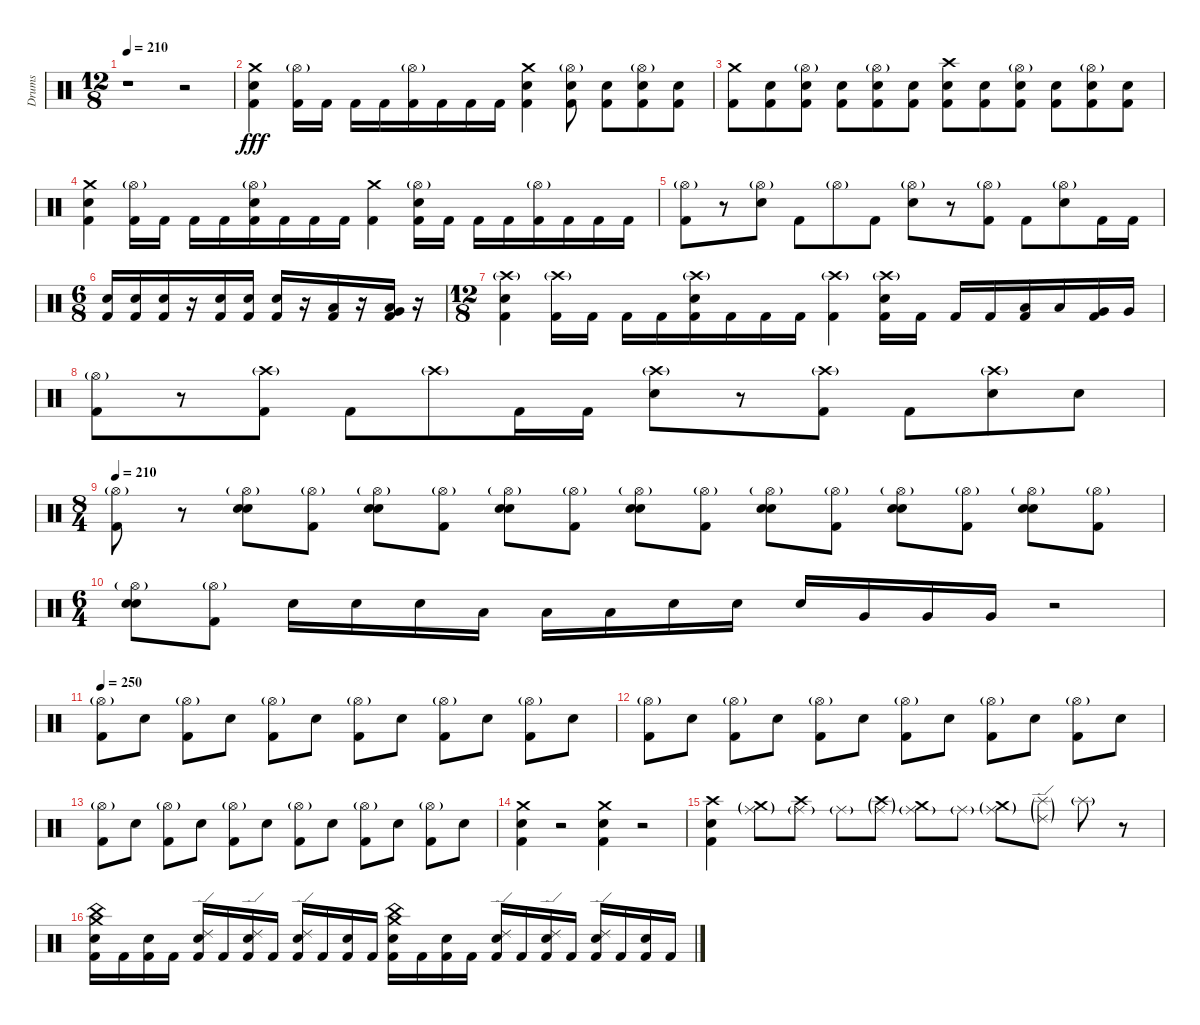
\track ("Drums" "Drums") {instrument percussion}
\staff {score}
\articulation defaults
\ts (12 8)
\tempo 210
\clef neutral
\ks c
r.1{dy fff} r.2 |
("Crash medium (hit)" "Electric Snare (hit)" "Kick (hit) 2").4 ("Hi-Hat (open)"{g} "Kick (hit) 2").16 "Kick (hit) 2".16 "Kick (hit) 2".16 "Kick (hit) 2".16 ("Hi-Hat (open)"{g} "Kick (hit) 2").16 "Kick (hit) 2".16 "Kick (hit) 2".16 "Kick (hit) 2".16 ("Crash medium (hit)" "Electric Snare (hit)" "Kick (hit) 2").4 ("Hi-Hat (open)"{g} "Electric Snare (hit)" "Kick (hit) 2").8 ("Electric Snare (hit)" "Kick (hit) 2").8 ("Hi-Hat (open)"{g} "Electric Snare (hit)" "Kick (hit) 2").8 ("Electric Snare (hit)" "Kick (hit) 2").8 |
("Crash medium (hit)" "Kick (hit) 2").8{beam Down} ("Electric Snare (hit)" "Kick (hit) 2").8{beam Down} ("Hi-Hat (open)"{g} "Electric Snare (hit)" "Kick (hit) 2").8{beam Down} ("Electric Snare (hit)" "Kick (hit) 2").8 ("Hi-Hat (open)"{g} "Electric Snare (hit)" "Kick (hit) 2").8 ("Electric Snare (hit)" "Kick (hit) 2").8 ("Crash high (hit)" "Electric Snare (hit)" "Kick (hit) 2").8 ("Electric Snare (hit)" "Kick (hit) 2").8 ("Hi-Hat (open)"{g} "Electric Snare (hit)" "Kick (hit) 2").8 ("Electric Snare (hit)" "Kick (hit) 2").8 ("Hi-Hat (open)"{g} "Electric Snare (hit)" "Kick (hit) 2").8 ("Electric Snare (hit)" "Kick (hit) 2").8 |
("Crash medium (hit)" "Electric Snare (hit)" "Kick (hit) 2").4 ("Hi-Hat (open)"{g} "Kick (hit) 2").16 "Kick (hit) 2".16 "Kick (hit) 2".16 "Kick (hit) 2".16 ("Hi-Hat (open)"{g} "Electric Snare (hit)" "Kick (hit) 2").16 "Kick (hit) 2".16 "Kick (hit) 2".16 "Kick (hit) 2".16 ("Crash medium (hit)" "Kick (hit) 2").4 ("Hi-Hat (open)"{g} "Electric Snare (hit)" "Kick (hit) 2").16 "Kick (hit) 2".16 "Kick (hit) 2".16 "Kick (hit) 2".16 ("Hi-Hat (open)"{g} "Kick (hit) 2").16 "Kick (hit) 2".16 "Kick (hit) 2".16 "Kick (hit) 2".16 |
("Hi-Hat (open)"{g} "Kick (hit) 2").8 r.8 ("Hi-Hat (open)"{g} "Electric Snare (hit)").8 "Kick (hit) 2".8 "Hi-Hat (open)"{g}.8 "Kick (hit) 2".8 ("Hi-Hat (open)"{g} "Electric Snare (hit)").8 r.8 ("Hi-Hat (open)"{g} "Kick (hit) 2").8 "Kick (hit) 2".8 ("Hi-Hat (open)"{g} "Electric Snare (hit)").8 "Kick (hit) 2".16 "Kick (hit) 2".16 |
\ts (6 8)
("Electric Snare (hit)" "Kick (hit) 2").16 ("Electric Snare (hit)" "Kick (hit) 2").16 ("Electric Snare (hit)" "Kick (hit) 2").16 r.16 ("Electric Snare (hit)" "Kick (hit) 2").16 ("Electric Snare (hit)" "Kick (hit) 2").16 ("Electric Snare (hit)" "Kick (hit) 2").16 r.16 ("Low Tom (hit)" "Kick (hit) 2").16{bd 120} r.16 ("Very Low Tom (hit)" "Low Tom (hit)" "Kick (hit) 2").16{bd 120} r.16 |
\ts (12 8)
("Crash high (hit)"{g} "Electric Snare (hit)" "Kick (hit) 2").4 ("Crash high (hit)"{g} "Kick (hit) 2").16 "Kick (hit) 2".16 "Kick (hit) 2".16 "Kick (hit) 2".16 ("Crash high (hit)"{g} "Electric Snare (hit)" "Kick (hit) 2").16 "Kick (hit) 2".16 "Kick (hit) 2".16 "Kick (hit) 2".16 ("Crash high (hit)"{g} "Kick (hit) 2").4 ("Crash high (hit)"{g} "Electric Snare (hit)" "Kick (hit) 2").16 "Kick (hit) 2".16 "Kick (hit) 2".16 "Kick (hit) 2".16 ("Low Tom (hit)" "Kick (hit) 2").16{volume 14} "Low Tom (hit)".16 ("Very Low Tom (hit)" "Kick (hit) 2").16 "Very Low Tom (hit)".16 |
("Hi-Hat (open)"{g} "Kick (hit) 2").8{volume 9} r.8 ("Crash high (hit)"{g} "Kick (hit) 2").8 "Kick (hit) 2".8 "Crash high (hit)"{g}.8 "Kick (hit) 2".16 "Kick (hit) 2".16 ("Crash high (hit)"{g} "Electric Snare (hit)").8 r.8 ("Crash high (hit)"{g} "Kick (hit) 2").8 "Kick (hit) 2".8 ("Crash high (hit)"{g} "Electric Snare (hit)").8 "Electric Snare (hit)".8 |
\ts (8 4)
\tempo 210
("Hi-Hat (open)"{g} "Kick (hit) 2").8 r.8 ("Hi-Hat (open)"{g} "Electric Snare (hit)" "Electric Snare (hit)").8{bd 240} ("Hi-Hat (open)"{g} "Kick (hit) 2").8 ("Hi-Hat (open)"{g} "Electric Snare (hit)" "Electric Snare (hit)").8{bd 240} ("Hi-Hat (open)"{g} "Kick (hit) 2").8 ("Hi-Hat (open)"{g} "Electric Snare (hit)" "Electric Snare (hit)").8{bd 240} ("Hi-Hat (open)"{g} "Kick (hit) 2").8 ("Hi-Hat (open)"{g} "Electric Snare (hit)" "Electric Snare (hit)").8{bd 240} ("Hi-Hat (open)"{g} "Kick (hit) 2").8 ("Hi-Hat (open)"{g} "Electric Snare (hit)" "Electric Snare (hit)").8{bd 240} ("Hi-Hat (open)"{g} "Kick (hit) 2").8 ("Hi-Hat (open)"{g} "Electric Snare (hit)" "Electric Snare (hit)").8{bd 240} ("Hi-Hat (open)"{g} "Kick (hit) 2").8 ("Hi-Hat (open)"{g} "Electric Snare (hit)" "Electric Snare (hit)").8{bd 240} ("Hi-Hat (open)"{g} "Kick (hit) 2").8 |
\ts (6 4)
("Hi-Hat (open)"{g} "Electric Snare (hit)" "Electric Snare (hit)").8{bd 240} ("Hi-Hat (open)"{g} "Kick (hit) 2").8 "Electric Snare (hit)".16{volume 13} "Electric Snare (hit)".16 "Electric Snare (hit)".16 "Low Tom (hit)".16 "Low Tom (hit)".16 "Low Tom (hit)".16 "Electric Snare (hit)".16 "Electric Snare (hit)".16 "Electric Snare (hit)".16 "Very Low Tom (hit)".16 "Very Low Tom (hit)".16 "Very Low Tom (hit)".16 r.2 |
\tempo 250
("Hi-Hat (open)"{g} "Kick (hit) 2").8{volume 10} "Electric Snare (hit)".8 ("Hi-Hat (open)"{g} "Kick (hit) 2").8 "Electric Snare (hit)".8 ("Hi-Hat (open)"{g} "Kick (hit) 2").8 "Electric Snare (hit)".8 ("Hi-Hat (open)"{g} "Kick (hit) 2").8 "Electric Snare (hit)".8 ("Hi-Hat (open)"{g} "Kick (hit) 2").8 "Electric Snare (hit)".8 ("Hi-Hat (open)"{g} "Kick (hit) 2").8 "Electric Snare (hit)".8 |
("Hi-Hat (open)"{g} "Kick (hit) 2").8 "Electric Snare (hit)".8 ("Hi-Hat (open)"{g} "Kick (hit) 2").8 "Electric Snare (hit)".8 ("Hi-Hat (open)"{g} "Kick (hit) 2").8 "Electric Snare (hit)".8 ("Hi-Hat (open)"{g} "Kick (hit) 2").8 "Electric Snare (hit)".8 ("Hi-Hat (open)"{g} "Kick (hit) 2").8 "Electric Snare (hit)".8 ("Hi-Hat (open)"{g} "Kick (hit) 2").8 "Electric Snare (hit)".8 |
("Hi-Hat (open)"{g} "Kick (hit) 2").8 "Electric Snare (hit)".8 ("Hi-Hat (open)"{g} "Kick (hit) 2").8 "Electric Snare (hit)".8 ("Hi-Hat (open)"{g} "Kick (hit) 2").8 "Electric Snare (hit)".8 ("Hi-Hat (open)"{g} "Kick (hit) 2").8 "Electric Snare (hit)".8 ("Hi-Hat (open)"{g} "Kick (hit) 2").8 "Electric Snare (hit)".8 ("Hi-Hat (open)"{g} "Kick (hit) 2").8 "Electric Snare (hit)".8 |
("Crash medium (hit)" "Electric Snare (hit)" "Kick (hit) 2").4 r.2{volume 0} ("Crash medium (hit)" "Electric Snare (hit)" "Kick (hit) 2").4{volume 10} r.2{volume 0} |
("Crash high (hit)" "Electric Snare (hit)" "Kick (hit) 2").4{volume 9} ("Crash medium (hit)"{g} "Ride (middle)"{g}).8 ("Crash high (hit)" "Ride (middle)"{g}).8 "Ride (middle)"{g}.8 ("Crash high (hit)"{g} "Ride (middle)"{g}).8 ("Crash medium (hit)" "Ride (middle)"{g}).8 "Ride (middle)"{g}.8 ("Crash medium (hit)"{g} "Ride (middle)"{g}).8 ("Splash (hit)"{g} "Ride (edge) 2"{g}).8 "Splash (hit)"{g}.8 r.8 |
("China (hit)" "Crash medium (hit)" "Electric Snare (hit)" "Kick (hit) 2").16 "Kick (hit) 2".16 ("Electric Snare (hit)" "Kick (hit) 2").16 "Kick (hit) 2".16 ("Ride (edge) 2" "Electric Snare (hit)" "Kick (hit) 2").16 "Kick (hit) 2".16 ("Ride (edge) 2" "Electric Snare (hit)" "Kick (hit) 2").16 "Kick (hit) 2".16 ("Ride (edge) 2" "Electric Snare (hit)" "Kick (hit) 2").16 "Kick (hit) 2".16 ("Electric Snare (hit)" "Kick (hit) 2").16 "Kick (hit) 2".16 ("China (hit)" "Crash medium (hit)" "Electric Snare (hit)" "Kick (hit) 2").16 "Kick (hit) 2".16 ("Electric Snare (hit)" "Kick (hit) 2").16 "Kick (hit) 2".16 ("Ride (edge) 2" "Electric Snare (hit)" "Kick (hit) 2").16 "Kick (hit) 2".16 ("Ride (edge) 2" "Electric Snare (hit)" "Kick (hit) 2").16 "Kick (hit) 2".16 ("Ride (edge) 2" "Electric Snare (hit)" "Kick (hit) 2").16 "Kick (hit) 2".16 ("Electric Snare (hit)" "Kick (hit) 2").16 "Kick (hit) 2".16
